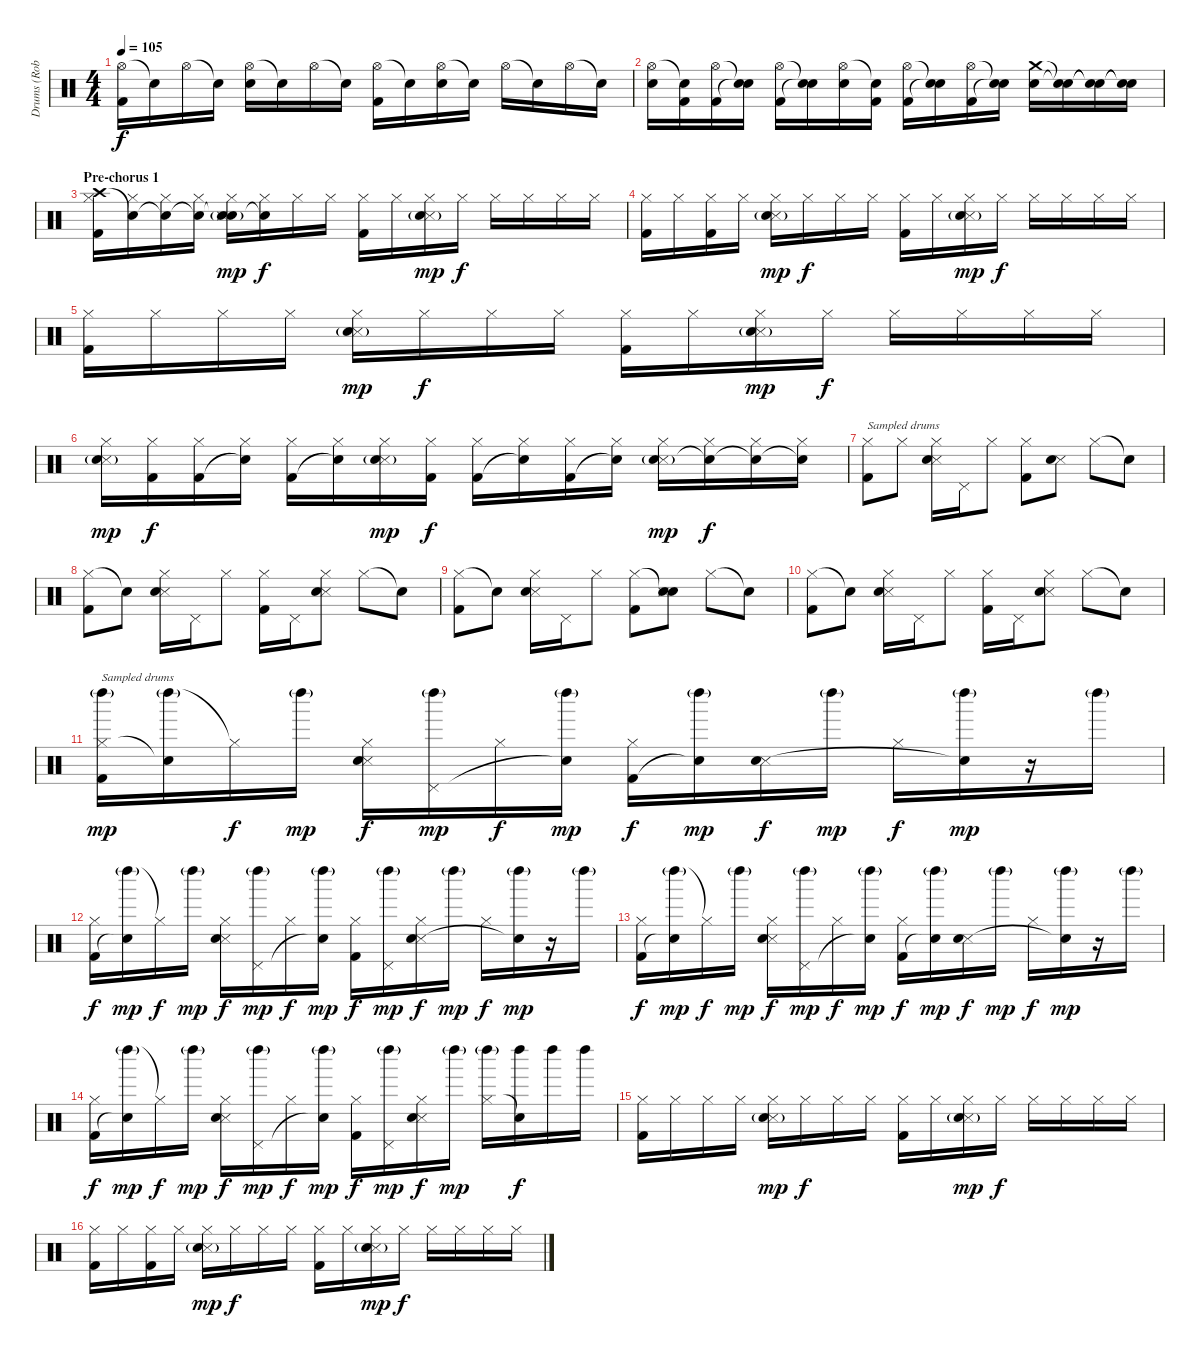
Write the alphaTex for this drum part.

\track ("Drums (Rob Bourdon)" "Drums (Rob") {instrument percussion}
\staff {score}
\articulation defaults
\ts (4 4)
\tempo 105
\clef neutral
\ks c
("Hi-Hat (open)" "Kick (hit) 2").16{dy f} "Snare (hit)"{t}.16 "Hi-Hat (open)".16 "Snare (hit)"{t}.16 ("Hi-Hat (open)" "Electric Snare (hit)").16 "Snare (hit)"{t}.16 "Hi-Hat (open)".16 "Snare (hit)"{t}.16 ("Hi-Hat (open)" "Kick (hit) 2").16 "Snare (hit)"{t}.16 ("Hi-Hat (open)" "Electric Snare (hit)").16 "Snare (hit)"{t}.16 "Hi-Hat (open)".16 "Snare (hit)"{t}.16 "Hi-Hat (open)".16 "Snare (hit)"{t}.16 |
("Hi-Hat (open)" "Electric Snare (hit)").16 ("Snare (hit)"{t} "Kick (hit) 2").16 ("Hi-Hat (open)" "Kick (hit) 2").16 ("Snare (hit)"{t} "Snare (hit)"{t}).16 ("Hi-Hat (open)" "Kick (hit) 2").16 ("Snare (hit)"{t} "Snare (hit)"{t}).16 ("Hi-Hat (open)" "Electric Snare (hit)").16 ("Snare (hit)"{t} "Kick (hit) 2").16 ("Hi-Hat (open)" "Kick (hit) 2").16 ("Snare (hit)"{t} "Snare (hit)"{t}).16 ("Hi-Hat (open)" "Kick (hit) 2").16 ("Snare (hit)"{t} "Snare (hit)"{t}).16 ("Crash medium (hit)" "Electric Snare (hit)").16 ("Snare (hit)"{t} "Snare (hit)"{t}).16 ("Snare (hit)"{t} "Snare (hit)"{t}).16 ("Snare (hit)"{t} "Snare (hit)"{t}).16 |
\section ("" "Pre-chorus 1")
("Crash high (hit)" "Hi-Hat (closed)" "Kick (hit) 2").16{volume 10} ("Snare (hit)"{t} "Hi-Hat (closed)").16 ("Snare (hit)"{t} "Hi-Hat (closed)").16 ("Snare (hit)"{t} "Hi-Hat (closed)").16 ("Snare (hit)"{t} "Hi-Hat (closed)" "Snare (side stick) 3" "Electric Snare (hit)"{g}).16{dy mp} ("Snare (hit)"{t} "Hi-Hat (closed)").16{dy f} "Hi-Hat (closed)".16 "Hi-Hat (closed)".16 ("Hi-Hat (closed)" "Kick (hit) 2").16 "Hi-Hat (closed)".16 ("Hi-Hat (closed)" "Snare (side stick) 3" "Electric Snare (hit)"{g}).16{dy mp} "Hi-Hat (closed)".16{dy f} "Hi-Hat (closed)".16 "Hi-Hat (closed)".16 "Hi-Hat (closed)".16 "Hi-Hat (closed)".16 |
("Hi-Hat (closed)" "Kick (hit) 2").16{volume 10} "Hi-Hat (closed)".16 ("Hi-Hat (closed)" "Kick (hit) 2").16 "Hi-Hat (closed)".16 ("Hi-Hat (closed)" "Snare (side stick) 3" "Electric Snare (hit)"{g}).16{dy mp} "Hi-Hat (closed)".16{dy f} "Hi-Hat (closed)".16 "Hi-Hat (closed)".16 ("Hi-Hat (closed)" "Kick (hit) 2").16 "Hi-Hat (closed)".16 ("Hi-Hat (closed)" "Snare (side stick) 3" "Electric Snare (hit)"{g}).16{dy mp} "Hi-Hat (closed)".16{dy f} "Hi-Hat (closed)".16 "Hi-Hat (closed)".16 "Hi-Hat (closed)".16 "Hi-Hat (closed)".16 |
("Hi-Hat (closed)" "Kick (hit) 2").16{volume 10} "Hi-Hat (closed)".16 "Hi-Hat (closed)".16 "Hi-Hat (closed)".16 ("Hi-Hat (closed)" "Snare (side stick) 3" "Electric Snare (hit)"{g}).16{dy mp} "Hi-Hat (closed)".16{dy f} "Hi-Hat (closed)".16 "Hi-Hat (closed)".16 ("Hi-Hat (closed)" "Kick (hit) 2").16 "Hi-Hat (closed)".16 ("Hi-Hat (closed)" "Snare (side stick) 3" "Electric Snare (hit)"{g}).16{dy mp} "Hi-Hat (closed)".16{dy f} "Hi-Hat (closed)".16 "Hi-Hat (closed)".16 "Hi-Hat (closed)".16 "Hi-Hat (closed)".16 |
("Hi-Hat (closed)" "Snare (side stick) 3" "Electric Snare (hit)"{g}).16{dy mp} ("Hi-Hat (closed)" "Kick (hit) 2").16{dy f} ("Hi-Hat (closed)" "Kick (hit) 2").16 ("Hi-Hat (closed)" "Snare (hit)"{t}).16 ("Hi-Hat (closed)" "Kick (hit) 2").16 ("Hi-Hat (closed)" "Snare (hit)"{t}).16 ("Hi-Hat (closed)" "Snare (side stick) 3" "Electric Snare (hit)"{g}).16{dy mp} ("Hi-Hat (closed)" "Kick (hit) 2").16{dy f} ("Hi-Hat (closed)" "Kick (hit) 2").16 ("Hi-Hat (closed)" "Snare (hit)"{t}).16 ("Hi-Hat (closed)" "Kick (hit) 2").16 ("Hi-Hat (closed)" "Snare (hit)"{t}).16 ("Hi-Hat (closed)" "Snare (side stick) 3" "Electric Snare (hit)"{g}).16{dy mp} ("Hi-Hat (closed)" "Snare (hit)"{t}).16{dy f} ("Hi-Hat (closed)" "Snare (hit)"{t}).16 ("Hi-Hat (closed)" "Snare (hit)"{t}).16 |
("Hi-Hat (closed)" "Kick (hit) 2").8{txt "Sampled drums"} "Hi-Hat (closed)".8 ("Hi-Hat (closed)" "Snare (side stick) 3" "Hand Clap (hit)").16 "Pedal Hi-Hat (hit)".16 "Hi-Hat (closed)".8 ("Hi-Hat (closed)" "Kick (hit) 2").8 ("Snare (side stick) 3" "Hand Clap (hit)").8 "Hi-Hat (closed)".8 "Snare (hit)"{t}.8 |
("Hi-Hat (closed)" "Kick (hit) 2").8 "Snare (hit)"{t}.8 ("Hi-Hat (closed)" "Snare (side stick) 3" "Hand Clap (hit)").16 "Pedal Hi-Hat (hit)".16 "Hi-Hat (closed)".8 ("Hi-Hat (closed)" "Kick (hit) 2").16 "Pedal Hi-Hat (hit)".16 ("Hi-Hat (closed)" "Snare (side stick) 3" "Hand Clap (hit)").8 "Hi-Hat (closed)".8 "Snare (hit)"{t}.8 |
("Hi-Hat (closed)" "Kick (hit) 2").8 "Snare (hit)"{t}.8 ("Hi-Hat (closed)" "Snare (side stick) 3" "Hand Clap (hit)").16 "Pedal Hi-Hat (hit)".16 "Hi-Hat (closed)".8 ("Hi-Hat (closed)" "Kick (hit) 2").8 ("Snare (hit)"{t} "Snare (side stick) 3" "Hand Clap (hit)").8 "Hi-Hat (closed)".8 "Snare (hit)"{t}.8 |
("Hi-Hat (closed)" "Kick (hit) 2").8 "Snare (hit)"{t}.8 ("Hi-Hat (closed)" "Snare (side stick) 3" "Hand Clap (hit)").16 "Pedal Hi-Hat (hit)".16 "Hi-Hat (closed)".8 ("Hi-Hat (closed)" "Kick (hit) 2").16 "Pedal Hi-Hat (hit)".16 ("Hi-Hat (closed)" "Snare (side stick) 3" "Hand Clap (hit)").8 "Hi-Hat (closed)".8 "Snare (hit)"{t}.8 |
("Left Maraca (hit)"{g} "Hi-Hat (closed)" "Kick (hit) 2").16{txt "Sampled drums" dy mp} ("Left Maraca (hit)"{g} "Snare (hit)"{t}).16 "Hi-Hat (closed)"{t}.16{dy f} "Left Maraca (hit)"{g}.16{dy mp} ("Hi-Hat (closed)" "Snare (side stick) 3" "Hand Clap (hit)").16{dy f} ("Left Maraca (hit)"{g} "Pedal Hi-Hat (hit)").16{dy mp} "Hi-Hat (closed)".16{dy f} ("Left Maraca (hit)"{g} "Snare (hit)"{t}).16{dy mp} ("Hi-Hat (closed)" "Kick (hit) 2").16{dy f} ("Left Maraca (hit)"{g} "Snare (hit)"{t}).16{dy mp} ("Snare (side stick) 3" "Hand Clap (hit)").16{dy f} "Left Maraca (hit)"{g}.16{dy mp} "Hi-Hat (closed)".16{dy f} ("Left Maraca (hit)"{g} "Snare (hit)"{t}).16{dy mp} r.16 "Left Maraca (hit)"{g}.16 |
("Hi-Hat (closed)" "Kick (hit) 2").16{dy f} ("Left Maraca (hit)"{g} "Snare (hit)"{t}).16{dy mp} "Hi-Hat (closed)"{t}.16{dy f} "Left Maraca (hit)"{g}.16{dy mp} ("Hi-Hat (closed)" "Snare (side stick) 3" "Hand Clap (hit)").16{dy f} ("Left Maraca (hit)"{g} "Pedal Hi-Hat (hit)").16{dy mp} "Hi-Hat (closed)".16{dy f} ("Left Maraca (hit)"{g} "Snare (hit)"{t}).16{dy mp} ("Hi-Hat (closed)" "Kick (hit) 2").16{dy f} ("Left Maraca (hit)"{g} "Pedal Hi-Hat (hit)").16{dy mp} ("Hi-Hat (closed)" "Snare (side stick) 3" "Hand Clap (hit)").16{dy f} "Left Maraca (hit)"{g}.16{dy mp} "Hi-Hat (closed)".16{dy f} ("Left Maraca (hit)"{g} "Snare (hit)"{t}).16{dy mp} r.16 "Left Maraca (hit)"{g}.16 |
("Hi-Hat (closed)" "Kick (hit) 2").16{dy f} ("Left Maraca (hit)"{g} "Snare (hit)"{t}).16{dy mp} "Hi-Hat (closed)"{t}.16{dy f} "Left Maraca (hit)"{g}.16{dy mp} ("Hi-Hat (closed)" "Snare (side stick) 3" "Hand Clap (hit)").16{dy f} ("Left Maraca (hit)"{g} "Pedal Hi-Hat (hit)").16{dy mp} "Hi-Hat (closed)".16{dy f} ("Left Maraca (hit)"{g} "Snare (hit)"{t}).16{dy mp} ("Hi-Hat (closed)" "Kick (hit) 2").16{dy f} ("Left Maraca (hit)"{g} "Snare (hit)"{t}).16{dy mp} ("Snare (side stick) 3" "Hand Clap (hit)").16{dy f} "Left Maraca (hit)"{g}.16{dy mp} "Hi-Hat (closed)".16{dy f} ("Left Maraca (hit)"{g} "Snare (hit)"{t}).16{dy mp} r.16 "Left Maraca (hit)"{g}.16 |
("Hi-Hat (closed)" "Kick (hit) 2").16{dy f} ("Left Maraca (hit)"{g} "Snare (hit)"{t}).16{dy mp} "Hi-Hat (closed)"{t}.16{dy f} "Left Maraca (hit)"{g}.16{dy mp} ("Hi-Hat (closed)" "Snare (side stick) 3" "Hand Clap (hit)").16{dy f} ("Left Maraca (hit)"{g} "Pedal Hi-Hat (hit)").16{dy mp} "Hi-Hat (closed)".16{dy f} ("Left Maraca (hit)"{g} "Snare (hit)"{t}).16{dy mp} ("Hi-Hat (closed)" "Kick (hit) 2").16{dy f} ("Left Maraca (hit)"{g} "Pedal Hi-Hat (hit)").16{dy mp} ("Hi-Hat (closed)" "Snare (side stick) 3" "Hand Clap (hit)").16{dy f} "Left Maraca (hit)"{g}.16{dy mp} ("Left Maraca (hit)"{g} "Hi-Hat (closed)").16 ("Left Maraca (hit)" "Snare (hit)"{t}).16{dy f} "Left Maraca (hit)".16 "Left Maraca (hit)".16 |
("Hi-Hat (closed)" "Kick (hit) 2").16 "Hi-Hat (closed)".16 "Hi-Hat (closed)".16 "Hi-Hat (closed)".16 ("Hi-Hat (closed)" "Snare (side stick) 3" "Electric Snare (hit)"{g}).16{dy mp} "Hi-Hat (closed)".16{dy f} "Hi-Hat (closed)".16 "Hi-Hat (closed)".16 ("Hi-Hat (closed)" "Kick (hit) 2").16 "Hi-Hat (closed)".16 ("Hi-Hat (closed)" "Snare (side stick) 3" "Electric Snare (hit)"{g}).16{dy mp} "Hi-Hat (closed)".16{dy f} "Hi-Hat (closed)".16 "Hi-Hat (closed)".16 "Hi-Hat (closed)".16 "Hi-Hat (closed)".16 |
("Hi-Hat (closed)" "Kick (hit) 2").16 "Hi-Hat (closed)".16 ("Hi-Hat (closed)" "Kick (hit) 2").16 "Hi-Hat (closed)".16 ("Hi-Hat (closed)" "Snare (side stick) 3" "Electric Snare (hit)"{g}).16{dy mp} "Hi-Hat (closed)".16{dy f} "Hi-Hat (closed)".16 "Hi-Hat (closed)".16 ("Hi-Hat (closed)" "Kick (hit) 2").16 "Hi-Hat (closed)".16 ("Hi-Hat (closed)" "Snare (side stick) 3" "Electric Snare (hit)"{g}).16{dy mp} "Hi-Hat (closed)".16{dy f} "Hi-Hat (closed)".16 "Hi-Hat (closed)".16 "Hi-Hat (closed)".16 "Hi-Hat (closed)".16
